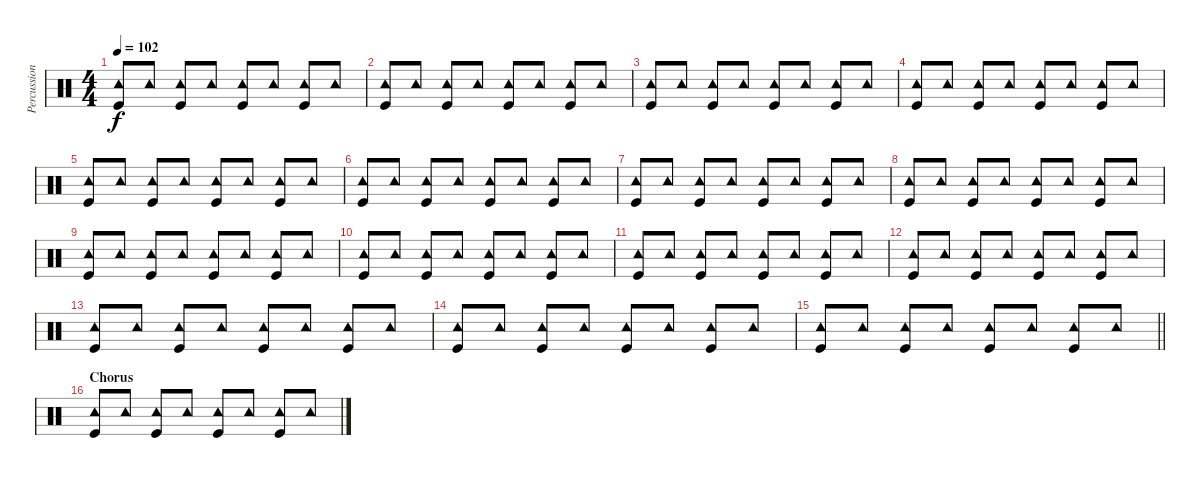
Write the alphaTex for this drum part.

\track ("Percussion" "Percussion") {instrument percussion}
\staff {score}
\articulation defaults
\ts (4 4)
\tempo 102
\clef neutral
\ks c
("Tambourine (hit)" "Kick (hit)").8{dy f} "Tambourine (hit)".8 ("Tambourine (hit)" "Kick (hit)").8 "Tambourine (hit)".8 ("Tambourine (hit)" "Kick (hit)").8 "Tambourine (hit)".8 ("Tambourine (hit)" "Kick (hit)").8 "Tambourine (hit)".8 |
("Tambourine (hit)" "Kick (hit)").8 "Tambourine (hit)".8 ("Tambourine (hit)" "Kick (hit)").8 "Tambourine (hit)".8 ("Tambourine (hit)" "Kick (hit)").8 "Tambourine (hit)".8 ("Tambourine (hit)" "Kick (hit)").8 "Tambourine (hit)".8 |
("Tambourine (hit)" "Kick (hit)").8 "Tambourine (hit)".8 ("Tambourine (hit)" "Kick (hit)").8 "Tambourine (hit)".8 ("Tambourine (hit)" "Kick (hit)").8 "Tambourine (hit)".8 ("Tambourine (hit)" "Kick (hit)").8 "Tambourine (hit)".8 |
("Tambourine (hit)" "Kick (hit)").8 "Tambourine (hit)".8 ("Tambourine (hit)" "Kick (hit)").8 "Tambourine (hit)".8 ("Tambourine (hit)" "Kick (hit)").8 "Tambourine (hit)".8 ("Tambourine (hit)" "Kick (hit)").8 "Tambourine (hit)".8 |
("Tambourine (hit)" "Kick (hit)").8 "Tambourine (hit)".8 ("Tambourine (hit)" "Kick (hit)").8 "Tambourine (hit)".8 ("Tambourine (hit)" "Kick (hit)").8 "Tambourine (hit)".8 ("Tambourine (hit)" "Kick (hit)").8 "Tambourine (hit)".8 |
("Tambourine (hit)" "Kick (hit)").8 "Tambourine (hit)".8 ("Tambourine (hit)" "Kick (hit)").8 "Tambourine (hit)".8 ("Tambourine (hit)" "Kick (hit)").8 "Tambourine (hit)".8 ("Tambourine (hit)" "Kick (hit)").8 "Tambourine (hit)".8 |
("Tambourine (hit)" "Kick (hit)").8 "Tambourine (hit)".8 ("Tambourine (hit)" "Kick (hit)").8 "Tambourine (hit)".8 ("Tambourine (hit)" "Kick (hit)").8 "Tambourine (hit)".8 ("Tambourine (hit)" "Kick (hit)").8 "Tambourine (hit)".8 |
("Tambourine (hit)" "Kick (hit)").8 "Tambourine (hit)".8 ("Tambourine (hit)" "Kick (hit)").8 "Tambourine (hit)".8 ("Tambourine (hit)" "Kick (hit)").8 "Tambourine (hit)".8 ("Tambourine (hit)" "Kick (hit)").8 "Tambourine (hit)".8 |
("Tambourine (hit)" "Kick (hit)").8 "Tambourine (hit)".8 ("Tambourine (hit)" "Kick (hit)").8 "Tambourine (hit)".8 ("Tambourine (hit)" "Kick (hit)").8 "Tambourine (hit)".8 ("Tambourine (hit)" "Kick (hit)").8 "Tambourine (hit)".8 |
("Tambourine (hit)" "Kick (hit)").8 "Tambourine (hit)".8 ("Tambourine (hit)" "Kick (hit)").8 "Tambourine (hit)".8 ("Tambourine (hit)" "Kick (hit)").8 "Tambourine (hit)".8 ("Tambourine (hit)" "Kick (hit)").8 "Tambourine (hit)".8 |
("Tambourine (hit)" "Kick (hit)").8 "Tambourine (hit)".8 ("Tambourine (hit)" "Kick (hit)").8 "Tambourine (hit)".8 ("Tambourine (hit)" "Kick (hit)").8 "Tambourine (hit)".8 ("Tambourine (hit)" "Kick (hit)").8 "Tambourine (hit)".8 |
("Tambourine (hit)" "Kick (hit)").8 "Tambourine (hit)".8 ("Tambourine (hit)" "Kick (hit)").8 "Tambourine (hit)".8 ("Tambourine (hit)" "Kick (hit)").8 "Tambourine (hit)".8 ("Tambourine (hit)" "Kick (hit)").8 "Tambourine (hit)".8 |
("Tambourine (hit)" "Kick (hit)").8 "Tambourine (hit)".8 ("Tambourine (hit)" "Kick (hit)").8 "Tambourine (hit)".8 ("Tambourine (hit)" "Kick (hit)").8 "Tambourine (hit)".8 ("Tambourine (hit)" "Kick (hit)").8 "Tambourine (hit)".8 |
("Tambourine (hit)" "Kick (hit)").8 "Tambourine (hit)".8 ("Tambourine (hit)" "Kick (hit)").8 "Tambourine (hit)".8 ("Tambourine (hit)" "Kick (hit)").8 "Tambourine (hit)".8 ("Tambourine (hit)" "Kick (hit)").8 "Tambourine (hit)".8 |
\barLineRight lightlight
("Tambourine (hit)" "Kick (hit)").8 "Tambourine (hit)".8 ("Tambourine (hit)" "Kick (hit)").8 "Tambourine (hit)".8 ("Tambourine (hit)" "Kick (hit)").8 "Tambourine (hit)".8 ("Tambourine (hit)" "Kick (hit)").8 "Tambourine (hit)".8 |
\section ("" "Chorus")
("Tambourine (hit)" "Kick (hit)").8 "Tambourine (hit)".8 ("Tambourine (hit)" "Kick (hit)").8 "Tambourine (hit)".8 ("Tambourine (hit)" "Kick (hit)").8 "Tambourine (hit)".8 ("Tambourine (hit)" "Kick (hit)").8 "Tambourine (hit)".8
